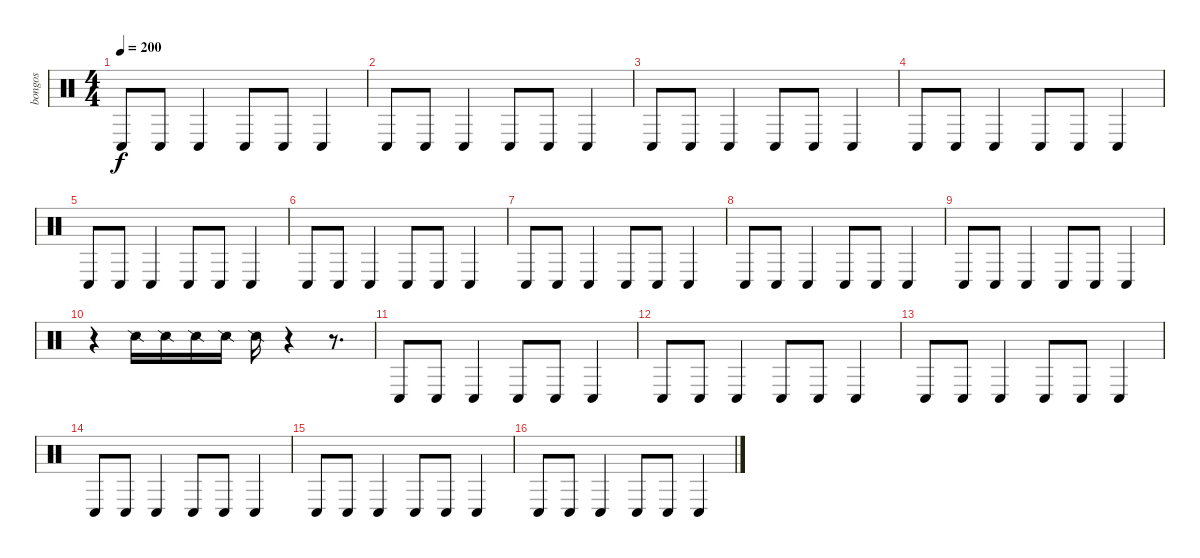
\track ("bongos" "bongos") {instrument percussion}
\staff {score}
\articulation defaults
\ts (4 4)
\tempo 200
\clef neutral
\ks c "Conga low (hit)".8{dy f} "Conga low (hit)".8 "Conga low (hit)".4 "Conga low (hit)".8 "Conga low (hit)".8 "Conga low (hit)".4
|
"Conga low (hit)".8 "Conga low (hit)".8 "Conga low (hit)".4 "Conga low (hit)".8 "Conga low (hit)".8 "Conga low (hit)".4 |
"Conga low (hit)".8 "Conga low (hit)".8 "Conga low (hit)".4 "Conga low (hit)".8 "Conga low (hit)".8 "Conga low (hit)".4 |
"Conga low (hit)".8 "Conga low (hit)".8 "Conga low (hit)".4 "Conga low (hit)".8 "Conga low (hit)".8 "Conga low (hit)".4 |
"Conga low (hit)".8 "Conga low (hit)".8 "Conga low (hit)".4 "Conga low (hit)".8 "Conga low (hit)".8 "Conga low (hit)".4 |
"Conga low (hit)".8 "Conga low (hit)".8 "Conga low (hit)".4 "Conga low (hit)".8 "Conga low (hit)".8 "Conga low (hit)".4 |
"Conga low (hit)".8 "Conga low (hit)".8 "Conga low (hit)".4 "Conga low (hit)".8 "Conga low (hit)".8 "Conga low (hit)".4 |
"Conga low (hit)".8 "Conga low (hit)".8 "Conga low (hit)".4 "Conga low (hit)".8 "Conga low (hit)".8 "Conga low (hit)".4 |
"Conga low (hit)".8 "Conga low (hit)".8 "Conga low (hit)".4 "Conga low (hit)".8 "Conga low (hit)".8 "Conga low (hit)".4 |
r.4 "Snare (side stick) 2".16 "Snare (side stick) 2".16 "Snare (side stick) 2".16 "Snare (side stick) 2".16 "Snare (side stick) 2".16 r.4 r.8{d} |
"Conga low (hit)".8 "Conga low (hit)".8 "Conga low (hit)".4 "Conga low (hit)".8 "Conga low (hit)".8 "Conga low (hit)".4 |
"Conga low (hit)".8 "Conga low (hit)".8 "Conga low (hit)".4 "Conga low (hit)".8 "Conga low (hit)".8 "Conga low (hit)".4 |
"Conga low (hit)".8 "Conga low (hit)".8 "Conga low (hit)".4 "Conga low (hit)".8 "Conga low (hit)".8 "Conga low (hit)".4 |
"Conga low (hit)".8 "Conga low (hit)".8 "Conga low (hit)".4 "Conga low (hit)".8 "Conga low (hit)".8 "Conga low (hit)".4 |
"Conga low (hit)".8 "Conga low (hit)".8 "Conga low (hit)".4 "Conga low (hit)".8 "Conga low (hit)".8 "Conga low (hit)".4 |
"Conga low (hit)".8 "Conga low (hit)".8 "Conga low (hit)".4 "Conga low (hit)".8 "Conga low (hit)".8 "Conga low (hit)".4
